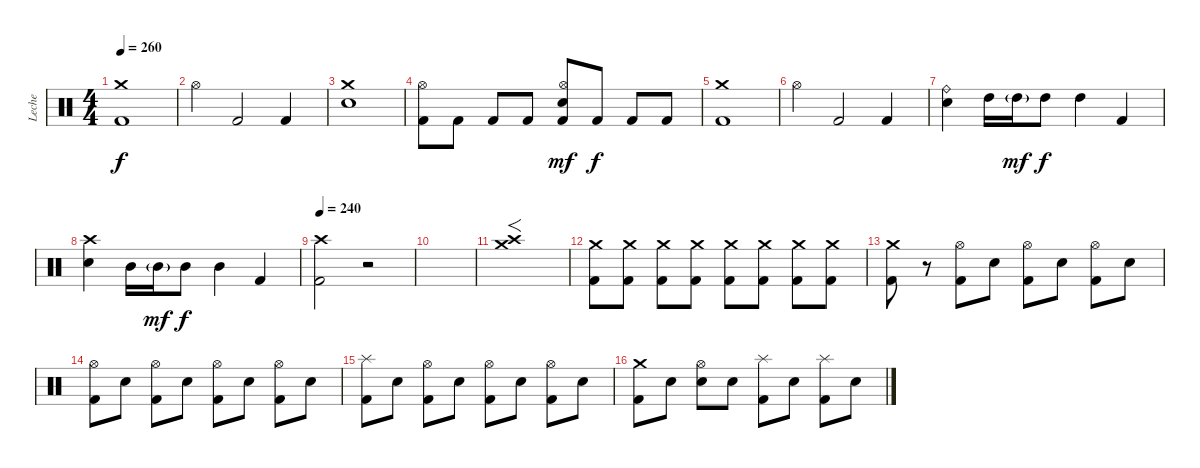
\track ("Leche" "Leche") {instrument percussion}
\staff {score}
\articulation defaults
\ts (4 4)
\tempo 260
\clef neutral
\ks c
("Crash medium (hit)" "Kick (hit) 2").1{dy f} |
"Hi-Hat (open)".4 "Kick (hit) 2".2 "Kick (hit) 2".4 |
("Crash medium (hit)" "Electric Snare (hit)").1 |
("Hi-Hat (open)" "Kick (hit) 2").8 "Kick (hit) 2".8 "Kick (hit) 2".8 "Kick (hit) 2".8 ("Hi-Hat (open)" "Electric Snare (hit)" "Kick (hit) 2").8{dy mf} "Kick (hit) 2".8{dy f} "Kick (hit) 2".8 "Kick (hit) 2".8 |
("Crash medium (hit)" "Kick (hit) 2").1 |
"Hi-Hat (open)".4 "Kick (hit) 2".2 "Kick (hit) 2".4 |
("Ride (bell)" "Electric Snare (hit)").4 "High Tom (hit)".16 "High Tom (hit)"{g}.16{dy mf} "High Tom (hit)".8{dy f} "High Tom (hit)".4 "Kick (hit) 2".4 |
("Crash high (hit)" "Electric Snare (hit)").4 "Mid Tom (hit)".16 "Mid Tom (hit)"{g}.16{dy mf} "Mid Tom (hit)".8{dy f} "Mid Tom (hit)".4 "Kick (hit) 2".4 |
\tempo 240
("Crash high (hit)" "Kick (hit) 2").2 r.2 |
|
("Crash medium (hit)" "Crash high (hit)").1{f} |
("Crash medium (hit)" "Kick (hit) 2").8 ("Crash medium (hit)" "Kick (hit) 2").8 ("Crash medium (hit)" "Kick (hit) 2").8 ("Crash medium (hit)" "Kick (hit) 2").8 ("Crash medium (hit)" "Kick (hit) 2").8 ("Crash medium (hit)" "Kick (hit) 2").8 ("Crash medium (hit)" "Kick (hit) 2").8 ("Crash medium (hit)" "Kick (hit) 2").8 |
("Crash medium (hit)" "Kick (hit) 2").8 r.8 ("Hi-Hat (open)" "Kick (hit) 2").8 "Electric Snare (hit)".8 ("Hi-Hat (open)" "Kick (hit) 2").8 "Electric Snare (hit)".8 ("Hi-Hat (open)" "Kick (hit) 2").8 "Electric Snare (hit)".8 |
("Hi-Hat (open)" "Kick (hit) 2").8 "Electric Snare (hit)".8 ("Hi-Hat (open)" "Kick (hit) 2").8 "Electric Snare (hit)".8 ("Hi-Hat (open)" "Kick (hit) 2").8 "Electric Snare (hit)".8 ("Hi-Hat (open)" "Kick (hit) 2").8 "Electric Snare (hit)".8 |
("Splash (hit)" "Kick (hit) 2").8 "Electric Snare (hit)".8 ("Hi-Hat (open)" "Kick (hit) 2").8 "Electric Snare (hit)".8 ("Hi-Hat (open)" "Kick (hit) 2").8 "Electric Snare (hit)".8 ("Hi-Hat (open)" "Kick (hit) 2").8 "Electric Snare (hit)".8 |
("Crash medium (hit)" "Kick (hit) 2").8 "Electric Snare (hit)".8 ("Hi-Hat (open)" "Electric Snare (hit)").8 "Electric Snare (hit)".8 ("Splash (hit)" "Kick (hit) 2").8 "Electric Snare (hit)".8 ("Splash (hit)" "Kick (hit) 2").8 "Electric Snare (hit)".8
